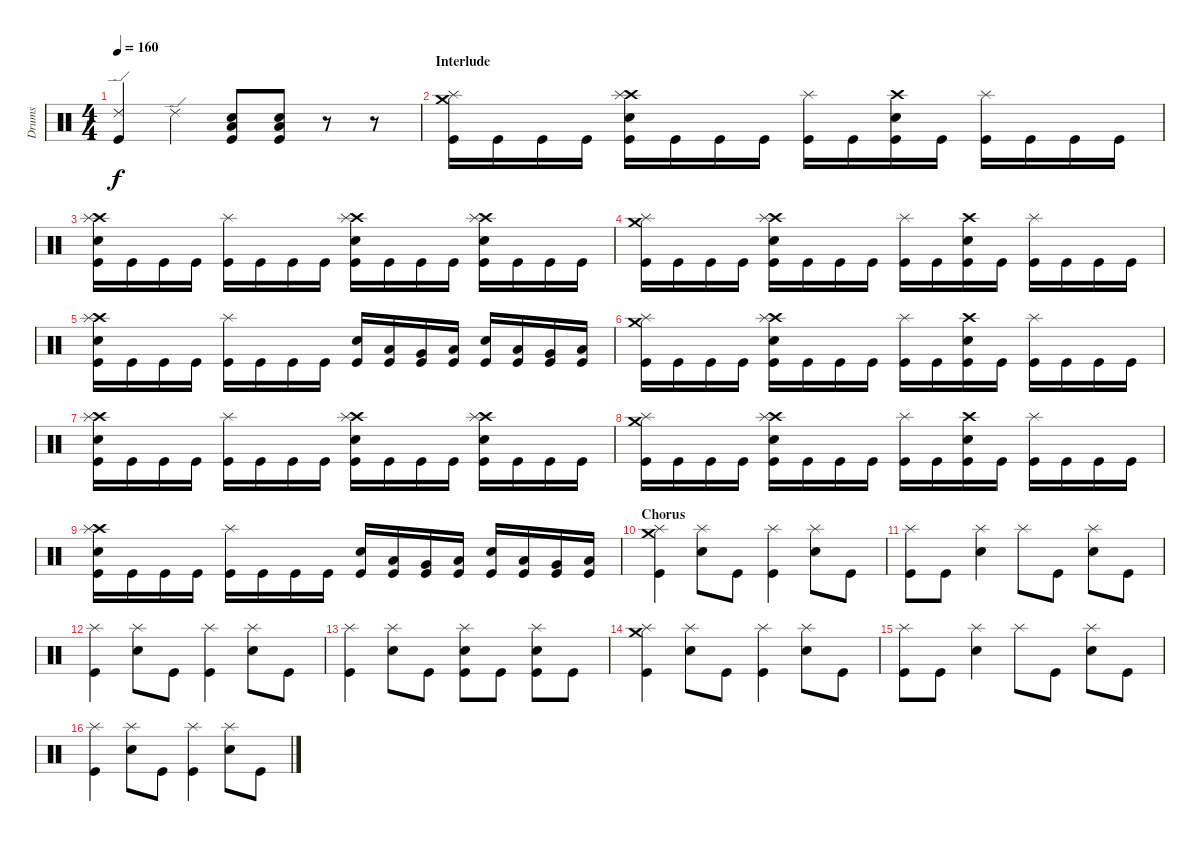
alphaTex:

\track ("Drums" "Drums") {instrument percussion}
\staff {score}
\articulation defaults
\ts (4 4)
\tempo 160
\clef neutral
\ks c
("Ride (edge) 2" "Kick (hit)").4{dy f} "Ride (edge) 2".4 ("Electric Snare (hit)" "Low Floor Tom (hit)" "Kick (hit)").8 ("Electric Snare (hit)" "Low Floor Tom (hit)" "Kick (hit)").8 r.8 r.8 |
\section ("" "Interlude")
("Crash medium (hit)" "Splash (hit)" "Kick (hit)").16 "Kick (hit)".16 "Kick (hit)".16 "Kick (hit)".16 ("Crash high (hit)" "Splash (hit)" "Electric Snare (hit)" "Kick (hit)").16 "Kick (hit)".16 "Kick (hit)".16 "Kick (hit)".16 ("Splash (hit)" "Kick (hit)").16 "Kick (hit)".16 ("Crash high (hit)" "Electric Snare (hit)" "Kick (hit)").16 "Kick (hit)".16 ("Splash (hit)" "Kick (hit)").16 "Kick (hit)".16 "Kick (hit)".16 "Kick (hit)".16 |
("Crash high (hit)" "Splash (hit)" "Electric Snare (hit)" "Kick (hit)").16 "Kick (hit)".16 "Kick (hit)".16 "Kick (hit)".16 ("Splash (hit)" "Kick (hit)").16 "Kick (hit)".16 "Kick (hit)".16 "Kick (hit)".16 ("Crash high (hit)" "Splash (hit)" "Electric Snare (hit)" "Kick (hit)").16 "Kick (hit)".16 "Kick (hit)".16 "Kick (hit)".16 ("Crash high (hit)" "Splash (hit)" "Electric Snare (hit)" "Kick (hit)").16 "Kick (hit)".16 "Kick (hit)".16 "Kick (hit)".16 |
("Crash medium (hit)" "Splash (hit)" "Kick (hit)").16 "Kick (hit)".16 "Kick (hit)".16 "Kick (hit)".16 ("Crash high (hit)" "Splash (hit)" "Electric Snare (hit)" "Kick (hit)").16 "Kick (hit)".16 "Kick (hit)".16 "Kick (hit)".16 ("Splash (hit)" "Kick (hit)").16 "Kick (hit)".16 ("Crash high (hit)" "Electric Snare (hit)" "Kick (hit)").16 "Kick (hit)".16 ("Splash (hit)" "Kick (hit)").16 "Kick (hit)".16 "Kick (hit)".16 "Kick (hit)".16 |
("Crash high (hit)" "Splash (hit)" "Electric Snare (hit)" "Kick (hit)").16 "Kick (hit)".16 "Kick (hit)".16 "Kick (hit)".16 ("Splash (hit)" "Kick (hit)").16 "Kick (hit)".16 "Kick (hit)".16 "Kick (hit)".16 ("Electric Snare (hit)" "Kick (hit)").16 ("Low Tom (hit)" "Kick (hit)").16 ("Very Low Tom (hit)" "Kick (hit)").16 ("Low Floor Tom (hit)" "Kick (hit)").16 ("Electric Snare (hit)" "Kick (hit)").16 ("Low Tom (hit)" "Kick (hit)").16 ("Very Low Tom (hit)" "Kick (hit)").16 ("Low Floor Tom (hit)" "Kick (hit)").16 |
("Crash medium (hit)" "Splash (hit)" "Kick (hit)").16 "Kick (hit)".16 "Kick (hit)".16 "Kick (hit)".16 ("Crash high (hit)" "Splash (hit)" "Electric Snare (hit)" "Kick (hit)").16 "Kick (hit)".16 "Kick (hit)".16 "Kick (hit)".16 ("Splash (hit)" "Kick (hit)").16 "Kick (hit)".16 ("Crash high (hit)" "Electric Snare (hit)" "Kick (hit)").16 "Kick (hit)".16 ("Splash (hit)" "Kick (hit)").16 "Kick (hit)".16 "Kick (hit)".16 "Kick (hit)".16 |
("Crash high (hit)" "Splash (hit)" "Electric Snare (hit)" "Kick (hit)").16 "Kick (hit)".16 "Kick (hit)".16 "Kick (hit)".16 ("Splash (hit)" "Kick (hit)").16 "Kick (hit)".16 "Kick (hit)".16 "Kick (hit)".16 ("Crash high (hit)" "Splash (hit)" "Electric Snare (hit)" "Kick (hit)").16 "Kick (hit)".16 "Kick (hit)".16 "Kick (hit)".16 ("Crash high (hit)" "Splash (hit)" "Electric Snare (hit)" "Kick (hit)").16 "Kick (hit)".16 "Kick (hit)".16 "Kick (hit)".16 |
("Crash medium (hit)" "Splash (hit)" "Kick (hit)").16 "Kick (hit)".16 "Kick (hit)".16 "Kick (hit)".16 ("Crash high (hit)" "Splash (hit)" "Electric Snare (hit)" "Kick (hit)").16 "Kick (hit)".16 "Kick (hit)".16 "Kick (hit)".16 ("Splash (hit)" "Kick (hit)").16 "Kick (hit)".16 ("Crash high (hit)" "Electric Snare (hit)" "Kick (hit)").16 "Kick (hit)".16 ("Splash (hit)" "Kick (hit)").16 "Kick (hit)".16 "Kick (hit)".16 "Kick (hit)".16 |
("Crash high (hit)" "Splash (hit)" "Electric Snare (hit)" "Kick (hit)").16 "Kick (hit)".16 "Kick (hit)".16 "Kick (hit)".16 ("Splash (hit)" "Kick (hit)").16 "Kick (hit)".16 "Kick (hit)".16 "Kick (hit)".16 ("Electric Snare (hit)" "Kick (hit)").16 ("Low Tom (hit)" "Kick (hit)").16 ("Very Low Tom (hit)" "Kick (hit)").16 ("Low Floor Tom (hit)" "Kick (hit)").16 ("Electric Snare (hit)" "Kick (hit)").16 ("Low Tom (hit)" "Kick (hit)").16 ("Very Low Tom (hit)" "Kick (hit)").16 ("Low Floor Tom (hit)" "Kick (hit)").16 |
\section ("" "Chorus")
("Crash medium (hit)" "Splash (hit)" "Kick (hit)").4 ("Splash (hit)" "Electric Snare (hit)").8 "Kick (hit)".8 ("Splash (hit)" "Kick (hit)").4 ("Splash (hit)" "Electric Snare (hit)").8 "Kick (hit)".8 |
("Splash (hit)" "Kick (hit)").8 "Kick (hit)".8 ("Splash (hit)" "Electric Snare (hit)").4 "Splash (hit)".8 "Kick (hit)".8 ("Splash (hit)" "Electric Snare (hit)").8 "Kick (hit)".8 |
("Splash (hit)" "Kick (hit)").4 ("Splash (hit)" "Electric Snare (hit)").8 "Kick (hit)".8 ("Splash (hit)" "Kick (hit)").4 ("Splash (hit)" "Electric Snare (hit)").8 "Kick (hit)".8 |
("Splash (hit)" "Kick (hit)").4 ("Splash (hit)" "Electric Snare (hit)").8 "Kick (hit)".8 ("Splash (hit)" "Electric Snare (hit)" "Kick (hit)").8 "Kick (hit)".8 ("Splash (hit)" "Electric Snare (hit)" "Kick (hit)").8 "Kick (hit)".8 |
("Crash medium (hit)" "Splash (hit)" "Kick (hit)").4 ("Splash (hit)" "Electric Snare (hit)").8 "Kick (hit)".8 ("Splash (hit)" "Kick (hit)").4 ("Splash (hit)" "Electric Snare (hit)").8 "Kick (hit)".8 |
("Splash (hit)" "Kick (hit)").8 "Kick (hit)".8 ("Splash (hit)" "Electric Snare (hit)").4 "Splash (hit)".8 "Kick (hit)".8 ("Splash (hit)" "Electric Snare (hit)").8 "Kick (hit)".8 |
("Splash (hit)" "Kick (hit)").4 ("Splash (hit)" "Electric Snare (hit)").8 "Kick (hit)".8 ("Splash (hit)" "Kick (hit)").4 ("Splash (hit)" "Electric Snare (hit)").8 "Kick (hit)".8
